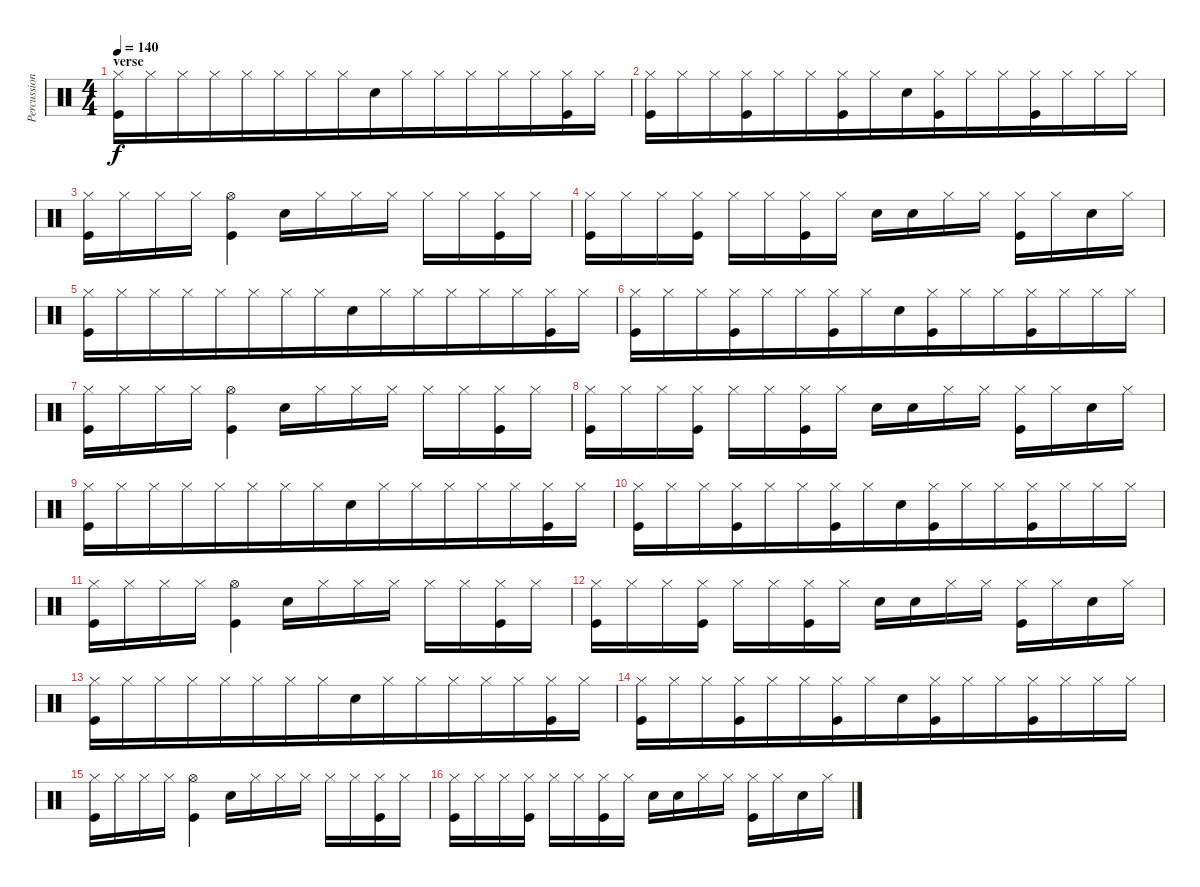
\track ("Percussion" "Percussion") {instrument percussion}
\staff {score}
\articulation defaults
\ts (4 4)
\section ("" "verse")
\tempo 140
\clef neutral
\ks c
("Kick (hit)" "Hi-Hat (closed)").16{dy f beam merge} "Hi-Hat (closed)".16{beam merge} "Hi-Hat (closed)".16{beam merge} "Hi-Hat (closed)".16{beam merge} "Hi-Hat (closed)".16{beam merge} "Hi-Hat (closed)".16{beam merge} "Hi-Hat (closed)".16{beam merge} "Hi-Hat (closed)".16{beam merge} "Snare (hit) 2".16{beam merge} "Hi-Hat (closed)".16{beam merge} "Hi-Hat (closed)".16{beam merge} "Hi-Hat (closed)".16{beam merge} "Hi-Hat (closed)".16{beam merge} "Hi-Hat (closed)".16{beam merge} ("Hi-Hat (closed)" "Kick (hit)").16{beam merge} "Hi-Hat (closed)".16 |
("Hi-Hat (closed)" "Kick (hit)").16{beam merge} "Hi-Hat (closed)".16{beam merge} "Hi-Hat (closed)".16{beam merge} ("Hi-Hat (closed)" "Kick (hit)").16{beam merge} "Hi-Hat (closed)".16{beam merge} "Hi-Hat (closed)".16{beam merge} ("Hi-Hat (closed)" "Kick (hit)").16{beam merge} "Hi-Hat (closed)".16{beam merge} "Snare (hit) 2".16{beam merge} ("Hi-Hat (closed)" "Kick (hit)").16{beam merge} "Hi-Hat (closed)".16{beam merge} "Hi-Hat (closed)".16{beam merge} ("Hi-Hat (closed)" "Kick (hit)").16{beam merge} "Hi-Hat (closed)".16{beam merge} "Hi-Hat (closed)".16{beam merge} "Hi-Hat (closed)".16 |
("Hi-Hat (closed)" "Kick (hit)").16 "Hi-Hat (closed)".16 "Hi-Hat (closed)".16 "Hi-Hat (closed)".16 ("Kick (hit)" "Hi-Hat (open)").4 "Snare (hit) 2".16 "Hi-Hat (closed)".16 "Hi-Hat (closed)".16 "Hi-Hat (closed)".16 "Hi-Hat (closed)".16 "Hi-Hat (closed)".16 ("Hi-Hat (closed)" "Kick (hit)").16 "Hi-Hat (closed)".16 |
("Hi-Hat (closed)" "Kick (hit)").16 "Hi-Hat (closed)".16 "Hi-Hat (closed)".16 ("Hi-Hat (closed)" "Kick (hit)").16 "Hi-Hat (closed)".16 "Hi-Hat (closed)".16 ("Hi-Hat (closed)" "Kick (hit)").16 "Hi-Hat (closed)".16 "Snare (hit) 2".16 "Snare (hit) 2".16 "Hi-Hat (closed)".16 "Hi-Hat (closed)".16 ("Hi-Hat (closed)" "Kick (hit)").16 "Hi-Hat (closed)".16 "Snare (hit) 2".16 "Hi-Hat (closed)".16 |
("Kick (hit)" "Hi-Hat (closed)").16{beam merge} "Hi-Hat (closed)".16{beam merge} "Hi-Hat (closed)".16{beam merge} "Hi-Hat (closed)".16{beam merge} "Hi-Hat (closed)".16{beam merge} "Hi-Hat (closed)".16{beam merge} "Hi-Hat (closed)".16{beam merge} "Hi-Hat (closed)".16{beam merge} "Snare (hit) 2".16{beam merge} "Hi-Hat (closed)".16{beam merge} "Hi-Hat (closed)".16{beam merge} "Hi-Hat (closed)".16{beam merge} "Hi-Hat (closed)".16{beam merge} "Hi-Hat (closed)".16{beam merge} ("Hi-Hat (closed)" "Kick (hit)").16{beam merge} "Hi-Hat (closed)".16 |
("Hi-Hat (closed)" "Kick (hit)").16{beam merge} "Hi-Hat (closed)".16{beam merge} "Hi-Hat (closed)".16{beam merge} ("Hi-Hat (closed)" "Kick (hit)").16{beam merge} "Hi-Hat (closed)".16{beam merge} "Hi-Hat (closed)".16{beam merge} ("Hi-Hat (closed)" "Kick (hit)").16{beam merge} "Hi-Hat (closed)".16{beam merge} "Snare (hit) 2".16{beam merge} ("Hi-Hat (closed)" "Kick (hit)").16{beam merge} "Hi-Hat (closed)".16{beam merge} "Hi-Hat (closed)".16{beam merge} ("Hi-Hat (closed)" "Kick (hit)").16{beam merge} "Hi-Hat (closed)".16{beam merge} "Hi-Hat (closed)".16{beam merge} "Hi-Hat (closed)".16 |
("Hi-Hat (closed)" "Kick (hit)").16 "Hi-Hat (closed)".16 "Hi-Hat (closed)".16 "Hi-Hat (closed)".16 ("Kick (hit)" "Hi-Hat (open)").4 "Snare (hit) 2".16 "Hi-Hat (closed)".16 "Hi-Hat (closed)".16 "Hi-Hat (closed)".16 "Hi-Hat (closed)".16 "Hi-Hat (closed)".16 ("Hi-Hat (closed)" "Kick (hit)").16 "Hi-Hat (closed)".16 |
("Hi-Hat (closed)" "Kick (hit)").16 "Hi-Hat (closed)".16 "Hi-Hat (closed)".16 ("Hi-Hat (closed)" "Kick (hit)").16 "Hi-Hat (closed)".16 "Hi-Hat (closed)".16 ("Hi-Hat (closed)" "Kick (hit)").16 "Hi-Hat (closed)".16 "Snare (hit) 2".16 "Snare (hit) 2".16 "Hi-Hat (closed)".16 "Hi-Hat (closed)".16 ("Hi-Hat (closed)" "Kick (hit)").16 "Hi-Hat (closed)".16 "Snare (hit) 2".16 "Hi-Hat (closed)".16 |
("Kick (hit)" "Hi-Hat (closed)").16{beam merge} "Hi-Hat (closed)".16{beam merge} "Hi-Hat (closed)".16{beam merge} "Hi-Hat (closed)".16{beam merge} "Hi-Hat (closed)".16{beam merge} "Hi-Hat (closed)".16{beam merge} "Hi-Hat (closed)".16{beam merge} "Hi-Hat (closed)".16{beam merge} "Snare (hit) 2".16{beam merge} "Hi-Hat (closed)".16{beam merge} "Hi-Hat (closed)".16{beam merge} "Hi-Hat (closed)".16{beam merge} "Hi-Hat (closed)".16{beam merge} "Hi-Hat (closed)".16{beam merge} ("Hi-Hat (closed)" "Kick (hit)").16{beam merge} "Hi-Hat (closed)".16 |
("Hi-Hat (closed)" "Kick (hit)").16{beam merge} "Hi-Hat (closed)".16{beam merge} "Hi-Hat (closed)".16{beam merge} ("Hi-Hat (closed)" "Kick (hit)").16{beam merge} "Hi-Hat (closed)".16{beam merge} "Hi-Hat (closed)".16{beam merge} ("Hi-Hat (closed)" "Kick (hit)").16{beam merge} "Hi-Hat (closed)".16{beam merge} "Snare (hit) 2".16{beam merge} ("Hi-Hat (closed)" "Kick (hit)").16{beam merge} "Hi-Hat (closed)".16{beam merge} "Hi-Hat (closed)".16{beam merge} ("Hi-Hat (closed)" "Kick (hit)").16{beam merge} "Hi-Hat (closed)".16{beam merge} "Hi-Hat (closed)".16{beam merge} "Hi-Hat (closed)".16 |
("Hi-Hat (closed)" "Kick (hit)").16 "Hi-Hat (closed)".16 "Hi-Hat (closed)".16 "Hi-Hat (closed)".16 ("Kick (hit)" "Hi-Hat (open)").4 "Snare (hit) 2".16 "Hi-Hat (closed)".16 "Hi-Hat (closed)".16 "Hi-Hat (closed)".16 "Hi-Hat (closed)".16 "Hi-Hat (closed)".16 ("Hi-Hat (closed)" "Kick (hit)").16 "Hi-Hat (closed)".16 |
("Hi-Hat (closed)" "Kick (hit)").16 "Hi-Hat (closed)".16 "Hi-Hat (closed)".16 ("Hi-Hat (closed)" "Kick (hit)").16 "Hi-Hat (closed)".16 "Hi-Hat (closed)".16 ("Hi-Hat (closed)" "Kick (hit)").16 "Hi-Hat (closed)".16 "Snare (hit) 2".16 "Snare (hit) 2".16 "Hi-Hat (closed)".16 "Hi-Hat (closed)".16 ("Hi-Hat (closed)" "Kick (hit)").16 "Hi-Hat (closed)".16 "Snare (hit) 2".16 "Hi-Hat (closed)".16 |
("Kick (hit)" "Hi-Hat (closed)").16{beam merge} "Hi-Hat (closed)".16{beam merge} "Hi-Hat (closed)".16{beam merge} "Hi-Hat (closed)".16{beam merge} "Hi-Hat (closed)".16{beam merge} "Hi-Hat (closed)".16{beam merge} "Hi-Hat (closed)".16{beam merge} "Hi-Hat (closed)".16{beam merge} "Snare (hit) 2".16{beam merge} "Hi-Hat (closed)".16{beam merge} "Hi-Hat (closed)".16{beam merge} "Hi-Hat (closed)".16{beam merge} "Hi-Hat (closed)".16{beam merge} "Hi-Hat (closed)".16{beam merge} ("Hi-Hat (closed)" "Kick (hit)").16{beam merge} "Hi-Hat (closed)".16 |
("Hi-Hat (closed)" "Kick (hit)").16{beam merge} "Hi-Hat (closed)".16{beam merge} "Hi-Hat (closed)".16{beam merge} ("Hi-Hat (closed)" "Kick (hit)").16{beam merge} "Hi-Hat (closed)".16{beam merge} "Hi-Hat (closed)".16{beam merge} ("Hi-Hat (closed)" "Kick (hit)").16{beam merge} "Hi-Hat (closed)".16{beam merge} "Snare (hit) 2".16{beam merge} ("Hi-Hat (closed)" "Kick (hit)").16{beam merge} "Hi-Hat (closed)".16{beam merge} "Hi-Hat (closed)".16{beam merge} ("Hi-Hat (closed)" "Kick (hit)").16{beam merge} "Hi-Hat (closed)".16{beam merge} "Hi-Hat (closed)".16{beam merge} "Hi-Hat (closed)".16 |
("Hi-Hat (closed)" "Kick (hit)").16 "Hi-Hat (closed)".16 "Hi-Hat (closed)".16 "Hi-Hat (closed)".16 ("Kick (hit)" "Hi-Hat (open)").4 "Snare (hit) 2".16 "Hi-Hat (closed)".16 "Hi-Hat (closed)".16 "Hi-Hat (closed)".16 "Hi-Hat (closed)".16 "Hi-Hat (closed)".16 ("Hi-Hat (closed)" "Kick (hit)").16 "Hi-Hat (closed)".16 |
("Hi-Hat (closed)" "Kick (hit)").16 "Hi-Hat (closed)".16 "Hi-Hat (closed)".16 ("Hi-Hat (closed)" "Kick (hit)").16 "Hi-Hat (closed)".16 "Hi-Hat (closed)".16 ("Hi-Hat (closed)" "Kick (hit)").16 "Hi-Hat (closed)".16 "Snare (hit) 2".16 "Snare (hit) 2".16 "Hi-Hat (closed)".16 "Hi-Hat (closed)".16 ("Hi-Hat (closed)" "Kick (hit)").16 "Hi-Hat (closed)".16 "Snare (hit) 2".16 "Hi-Hat (closed)".16
